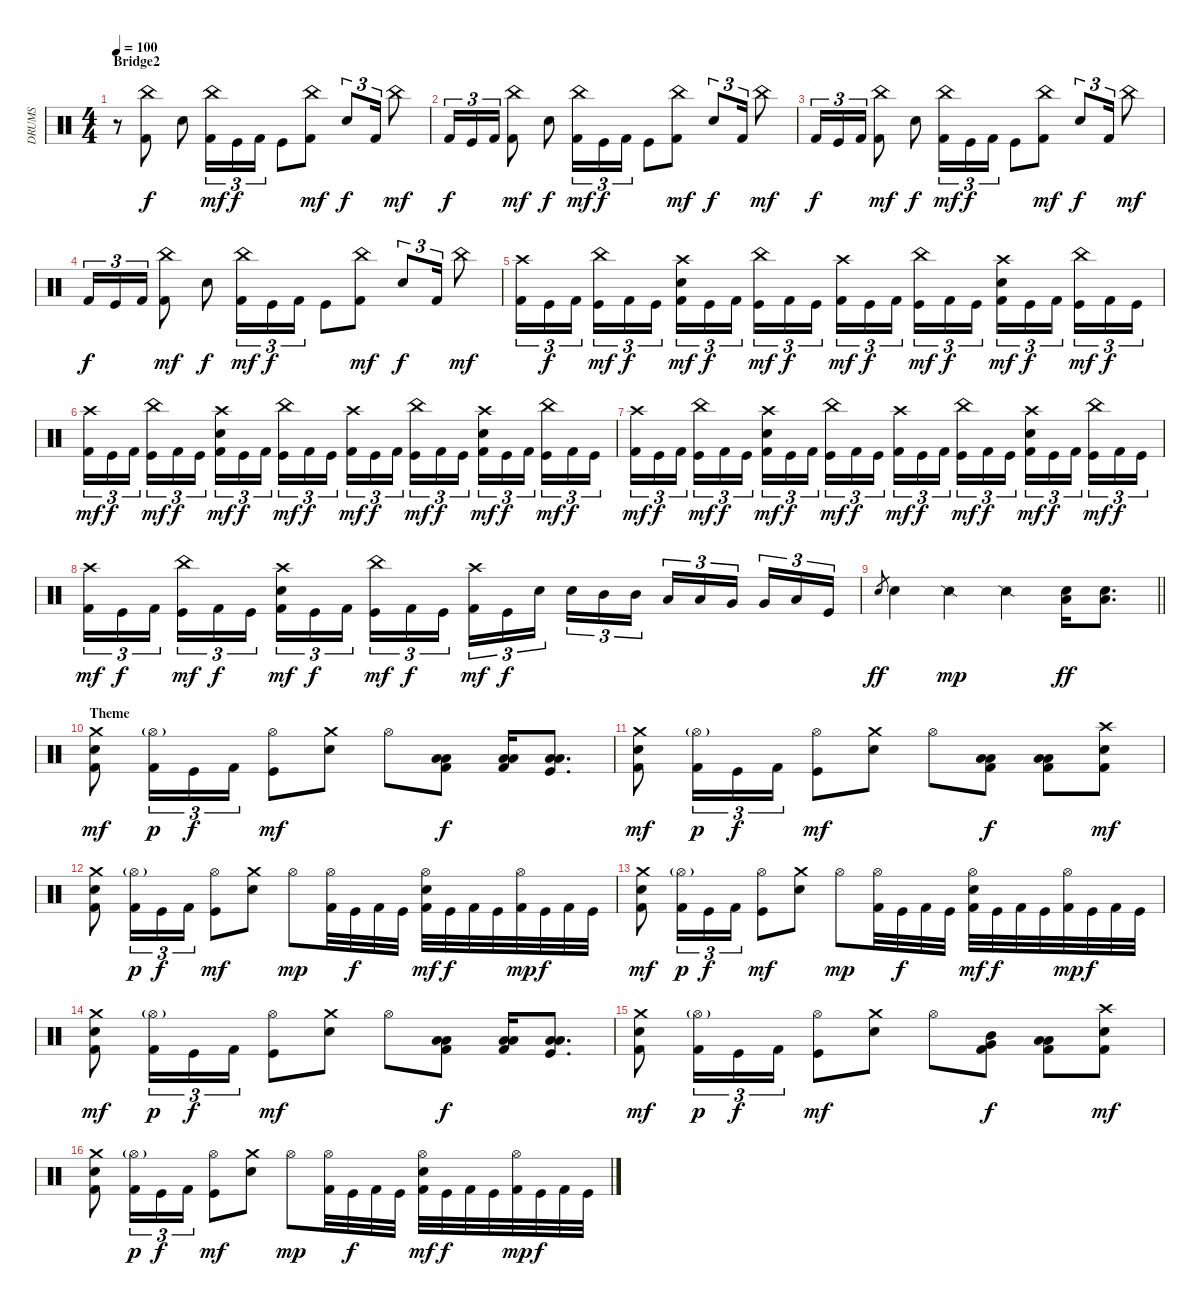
\track ("DRUMS" "DRUMS") {instrument percussion}
\staff {score}
\articulation defaults
\ts (4 4)
\section ("" "Bridge2")
\tempo 100
\clef neutral
\ks c
r.8{dy f} ("China (hit)" "Kick (hit) 2").8 "Snare (hit) 2".8 ("China (hit)" "Kick (hit) 2").16{tu (3 2) dy mf} "Kick (hit)".16{tu (3 2) dy f} "Kick (hit) 2".16{tu (3 2)} "Kick (hit)".8 ("China (hit)" "Kick (hit) 2").8{dy mf} "Snare (hit) 2".8{tu (3 2) dy f} "Kick (hit) 2".16{tu (3 2)} "China (hit)".8{dy mf} |
"Kick (hit) 2".16{tu (3 2) dy f} "Kick (hit)".16{tu (3 2)} "Kick (hit) 2".16{tu (3 2)} ("China (hit)" "Kick (hit) 2").8{dy mf} "Snare (hit) 2".8{dy f} ("China (hit)" "Kick (hit) 2").16{tu (3 2) dy mf} "Kick (hit)".16{tu (3 2) dy f} "Kick (hit) 2".16{tu (3 2)} "Kick (hit)".8 ("China (hit)" "Kick (hit) 2").8{dy mf} "Snare (hit) 2".8{tu (3 2) dy f} "Kick (hit) 2".16{tu (3 2)} "China (hit)".8{dy mf} |
"Kick (hit) 2".16{tu (3 2) dy f} "Kick (hit)".16{tu (3 2)} "Kick (hit) 2".16{tu (3 2)} ("China (hit)" "Kick (hit) 2").8{dy mf} "Snare (hit) 2".8{dy f} ("China (hit)" "Kick (hit) 2").16{tu (3 2) dy mf} "Kick (hit)".16{tu (3 2) dy f} "Kick (hit) 2".16{tu (3 2)} "Kick (hit)".8 ("China (hit)" "Kick (hit) 2").8{dy mf} "Snare (hit) 2".8{tu (3 2) dy f} "Kick (hit) 2".16{tu (3 2)} "China (hit)".8{dy mf} |
"Kick (hit) 2".16{tu (3 2) dy f} "Kick (hit)".16{tu (3 2)} "Kick (hit) 2".16{tu (3 2)} ("China (hit)" "Kick (hit) 2").8{dy mf} "Snare (hit) 2".8{dy f} ("China (hit)" "Kick (hit) 2").16{tu (3 2) dy mf} "Kick (hit)".16{tu (3 2) dy f} "Kick (hit) 2".16{tu (3 2)} "Kick (hit)".8 ("China (hit)" "Kick (hit) 2").8{dy mf} "Snare (hit) 2".8{tu (3 2) dy f} "Kick (hit) 2".16{tu (3 2)} "China (hit)".8{dy mf} |
("Crash high (hit)" "Kick (hit) 2").16{tu (3 2)} "Kick (hit)".16{tu (3 2) dy f} "Kick (hit) 2".16{tu (3 2) beam splitsecondary} ("China (hit)" "Kick (hit)").16{tu (3 2) dy mf} "Kick (hit) 2".16{tu (3 2) dy f} "Kick (hit)".16{tu (3 2)} ("Crash high (hit)" "Snare (hit) 2" "Kick (hit) 2").16{tu (3 2) dy mf} "Kick (hit)".16{tu (3 2) dy f} "Kick (hit) 2".16{tu (3 2) beam splitsecondary} ("China (hit)" "Kick (hit)").16{tu (3 2) dy mf} "Kick (hit) 2".16{tu (3 2) dy f} "Kick (hit)".16{tu (3 2)} ("Crash high (hit)" "Kick (hit) 2").16{tu (3 2) dy mf} "Kick (hit)".16{tu (3 2) dy f} "Kick (hit) 2".16{tu (3 2) beam splitsecondary} ("China (hit)" "Kick (hit)").16{tu (3 2) dy mf} "Kick (hit) 2".16{tu (3 2) dy f} "Kick (hit)".16{tu (3 2)} ("Crash high (hit)" "Snare (hit) 2" "Kick (hit) 2").16{tu (3 2) dy mf} "Kick (hit)".16{tu (3 2) dy f} "Kick (hit) 2".16{tu (3 2) beam splitsecondary} ("China (hit)" "Kick (hit)").16{tu (3 2) dy mf} "Kick (hit) 2".16{tu (3 2) dy f} "Kick (hit)".16{tu (3 2)} |
("Crash high (hit)" "Kick (hit) 2").16{tu (3 2) dy mf} "Kick (hit)".16{tu (3 2) dy f} "Kick (hit) 2".16{tu (3 2) beam splitsecondary} ("China (hit)" "Kick (hit)").16{tu (3 2) dy mf} "Kick (hit) 2".16{tu (3 2) dy f} "Kick (hit)".16{tu (3 2)} ("Crash high (hit)" "Snare (hit) 2" "Kick (hit) 2").16{tu (3 2) dy mf} "Kick (hit)".16{tu (3 2) dy f} "Kick (hit) 2".16{tu (3 2) beam splitsecondary} ("China (hit)" "Kick (hit)").16{tu (3 2) dy mf} "Kick (hit) 2".16{tu (3 2) dy f} "Kick (hit)".16{tu (3 2)} ("Crash high (hit)" "Kick (hit) 2").16{tu (3 2) dy mf} "Kick (hit)".16{tu (3 2) dy f} "Kick (hit) 2".16{tu (3 2) beam splitsecondary} ("China (hit)" "Kick (hit)").16{tu (3 2) dy mf} "Kick (hit) 2".16{tu (3 2) dy f} "Kick (hit)".16{tu (3 2)} ("Crash high (hit)" "Snare (hit) 2" "Kick (hit) 2").16{tu (3 2) dy mf} "Kick (hit)".16{tu (3 2) dy f} "Kick (hit) 2".16{tu (3 2) beam splitsecondary} ("China (hit)" "Kick (hit)").16{tu (3 2) dy mf} "Kick (hit) 2".16{tu (3 2) dy f} "Kick (hit)".16{tu (3 2)} |
("Crash high (hit)" "Kick (hit) 2").16{tu (3 2) dy mf} "Kick (hit)".16{tu (3 2) dy f} "Kick (hit) 2".16{tu (3 2) beam splitsecondary} ("China (hit)" "Kick (hit)").16{tu (3 2) dy mf} "Kick (hit) 2".16{tu (3 2) dy f} "Kick (hit)".16{tu (3 2)} ("Crash high (hit)" "Snare (hit) 2" "Kick (hit) 2").16{tu (3 2) dy mf} "Kick (hit)".16{tu (3 2) dy f} "Kick (hit) 2".16{tu (3 2) beam splitsecondary} ("China (hit)" "Kick (hit)").16{tu (3 2) dy mf} "Kick (hit) 2".16{tu (3 2) dy f} "Kick (hit)".16{tu (3 2)} ("Crash high (hit)" "Kick (hit) 2").16{tu (3 2) dy mf} "Kick (hit)".16{tu (3 2) dy f} "Kick (hit) 2".16{tu (3 2) beam splitsecondary} ("China (hit)" "Kick (hit)").16{tu (3 2) dy mf} "Kick (hit) 2".16{tu (3 2) dy f} "Kick (hit)".16{tu (3 2)} ("Crash high (hit)" "Snare (hit) 2" "Kick (hit) 2").16{tu (3 2) dy mf} "Kick (hit)".16{tu (3 2) dy f} "Kick (hit) 2".16{tu (3 2) beam splitsecondary} ("China (hit)" "Kick (hit)").16{tu (3 2) dy mf} "Kick (hit) 2".16{tu (3 2) dy f} "Kick (hit)".16{tu (3 2)} |
("Crash high (hit)" "Kick (hit) 2").16{tu (3 2) dy mf} "Kick (hit)".16{tu (3 2) dy f} "Kick (hit) 2".16{tu (3 2) beam splitsecondary} ("China (hit)" "Kick (hit)").16{tu (3 2) dy mf} "Kick (hit) 2".16{tu (3 2) dy f} "Kick (hit)".16{tu (3 2)} ("Crash high (hit)" "Snare (hit) 2" "Kick (hit) 2").16{tu (3 2) dy mf} "Kick (hit)".16{tu (3 2) dy f} "Kick (hit) 2".16{tu (3 2) beam splitsecondary} ("China (hit)" "Kick (hit)").16{tu (3 2) dy mf} "Kick (hit) 2".16{tu (3 2) dy f} "Kick (hit)".16{tu (3 2)} ("Crash high (hit)" "Kick (hit) 2").16{tu (3 2) dy mf} "Kick (hit)".16{tu (3 2) dy f} "Electric Snare (hit)".16{tu (3 2) beam splitsecondary} "Snare (hit) 2".16{tu (3 2)} "Mid Tom (hit)".16{tu (3 2)} "Mid Tom (hit)".16{tu (3 2)} "Low Tom (hit)".16{tu (3 2)} "Low Tom (hit)".16{tu (3 2)} "Very Low Tom (hit)".16{tu (3 2) beam splitsecondary} "Very Low Tom (hit)".16{tu (3 2)} "Low Floor Tom (hit)".16{tu (3 2)} "Kick (hit)".16{tu (3 2)} |
\barLineRight lightlight "Electric Snare (hit)".8{gr dy ff} "Snare (hit) 2".4 "Snare (side stick) 2".4{dy mp} "Snare (side stick) 2".4
("Snare (hit) 2" "Low Floor Tom (hit)").16{dy ff} ("Snare (hit) 2" "Low Floor Tom (hit)").8{d} |
\section ("" "Theme")
("Crash medium (hit)" "Snare (hit) 2" "Kick (hit) 2").8{dy mf} ("Hi-Hat (open)"{g} "Kick (hit) 2").16{tu (3 2) dy p} "Kick (hit)".16{tu (3 2) dy f} "Kick (hit) 2".16{tu (3 2)} ("Hi-Hat (open)" "Kick (hit)").8{dy mf} ("Crash medium (hit)" "Snare (hit) 2").8 "Hi-Hat (open)".8 ("Low Tom (hit)" "Low Floor Tom (hit)" "Kick (hit) 2").8{dy f} ("Low Tom (hit)" "Low Floor Tom (hit)" "Kick (hit) 2").16 ("Low Tom (hit)" "Low Floor Tom (hit)" "Kick (hit)").8{d} |
("Crash medium (hit)" "Snare (hit) 2" "Kick (hit) 2").8{dy mf} ("Hi-Hat (open)"{g} "Kick (hit) 2").16{tu (3 2) dy p} "Kick (hit)".16{tu (3 2) dy f} "Kick (hit) 2".16{tu (3 2)} ("Hi-Hat (open)" "Kick (hit)").8{dy mf} ("Crash medium (hit)" "Snare (hit) 2").8 "Hi-Hat (open)".8 ("Low Tom (hit)" "Low Floor Tom (hit)" "Kick (hit) 2").8{dy f} ("Low Tom (hit)" "Low Floor Tom (hit)" "Kick (hit) 2").8 ("Crash high (hit)" "Snare (hit) 2" "Kick (hit) 2").8{dy mf} |
("Crash medium (hit)" "Snare (hit) 2" "Kick (hit) 2").8 ("Hi-Hat (open)"{g} "Kick (hit) 2").16{tu (3 2) dy p} "Kick (hit)".16{tu (3 2) dy f} "Kick (hit) 2".16{tu (3 2)} ("Hi-Hat (open)" "Kick (hit)").8{dy mf} ("Crash medium (hit)" "Snare (hit) 2").8 "Hi-Hat (open)".8{dy mp} ("Hi-Hat (open)" "Kick (hit) 2").32 "Kick (hit)".32{dy f} "Kick (hit) 2".32 "Kick (hit)".32 ("Hi-Hat (open)" "Snare (hit) 2" "Kick (hit) 2").32{dy mf} "Kick (hit)".32{dy f} "Kick (hit) 2".32 "Kick (hit)".32 ("Hi-Hat (open)" "Kick (hit) 2").32{dy mp} "Kick (hit)".32{dy f} "Kick (hit) 2".32 "Kick (hit)".32 |
("Crash medium (hit)" "Snare (hit) 2" "Kick (hit) 2").8{dy mf} ("Hi-Hat (open)"{g} "Kick (hit) 2").16{tu (3 2) dy p} "Kick (hit)".16{tu (3 2) dy f} "Kick (hit) 2".16{tu (3 2)} ("Hi-Hat (open)" "Kick (hit)").8{dy mf} ("Crash medium (hit)" "Snare (hit) 2").8 "Hi-Hat (open)".8{dy mp} ("Hi-Hat (open)" "Kick (hit) 2").32 "Kick (hit)".32{dy f} "Kick (hit) 2".32 "Kick (hit)".32 ("Hi-Hat (open)" "Snare (hit) 2" "Kick (hit) 2").32{dy mf} "Kick (hit)".32{dy f} "Kick (hit) 2".32 "Kick (hit)".32 ("Hi-Hat (open)" "Kick (hit) 2").32{dy mp} "Kick (hit)".32{dy f} "Kick (hit) 2".32 "Kick (hit)".32 |
("Crash medium (hit)" "Snare (hit) 2" "Kick (hit) 2").8{dy mf} ("Hi-Hat (open)"{g} "Kick (hit) 2").16{tu (3 2) dy p} "Kick (hit)".16{tu (3 2) dy f} "Kick (hit) 2".16{tu (3 2)} ("Hi-Hat (open)" "Kick (hit)").8{dy mf} ("Crash medium (hit)" "Snare (hit) 2").8 "Hi-Hat (open)".8 ("Low Tom (hit)" "Low Floor Tom (hit)" "Kick (hit) 2").8{dy f} ("Low Tom (hit)" "Low Floor Tom (hit)" "Kick (hit) 2").16 ("Low Tom (hit)" "Low Floor Tom (hit)" "Kick (hit)").8{d} |
("Crash medium (hit)" "Snare (hit) 2" "Kick (hit) 2").8{dy mf} ("Hi-Hat (open)"{g} "Kick (hit) 2").16{tu (3 2) dy p} "Kick (hit)".16{tu (3 2) dy f} "Kick (hit) 2".16{tu (3 2)} ("Hi-Hat (open)" "Kick (hit)").8{dy mf} ("Crash medium (hit)" "Snare (hit) 2").8 "Hi-Hat (open)".8 ("Mid Tom (hit)" "Very Low Tom (hit)" "Kick (hit) 2").8{dy f} ("Low Tom (hit)" "Low Floor Tom (hit)" "Kick (hit) 2").8 ("Crash high (hit)" "Snare (hit) 2" "Kick (hit) 2").8{dy mf} |
("Crash medium (hit)" "Snare (hit) 2" "Kick (hit) 2").8 ("Hi-Hat (open)"{g} "Kick (hit) 2").16{tu (3 2) dy p} "Kick (hit)".16{tu (3 2) dy f} "Kick (hit) 2".16{tu (3 2)} ("Hi-Hat (open)" "Kick (hit)").8{dy mf} ("Crash medium (hit)" "Snare (hit) 2").8 "Hi-Hat (open)".8{dy mp} ("Hi-Hat (open)" "Kick (hit) 2").32 "Kick (hit)".32{dy f} "Kick (hit) 2".32 "Kick (hit)".32 ("Hi-Hat (open)" "Snare (hit) 2" "Kick (hit) 2").32{dy mf} "Kick (hit)".32{dy f} "Kick (hit) 2".32 "Kick (hit)".32 ("Hi-Hat (open)" "Kick (hit) 2").32{dy mp} "Kick (hit)".32{dy f} "Kick (hit) 2".32 "Kick (hit)".32
